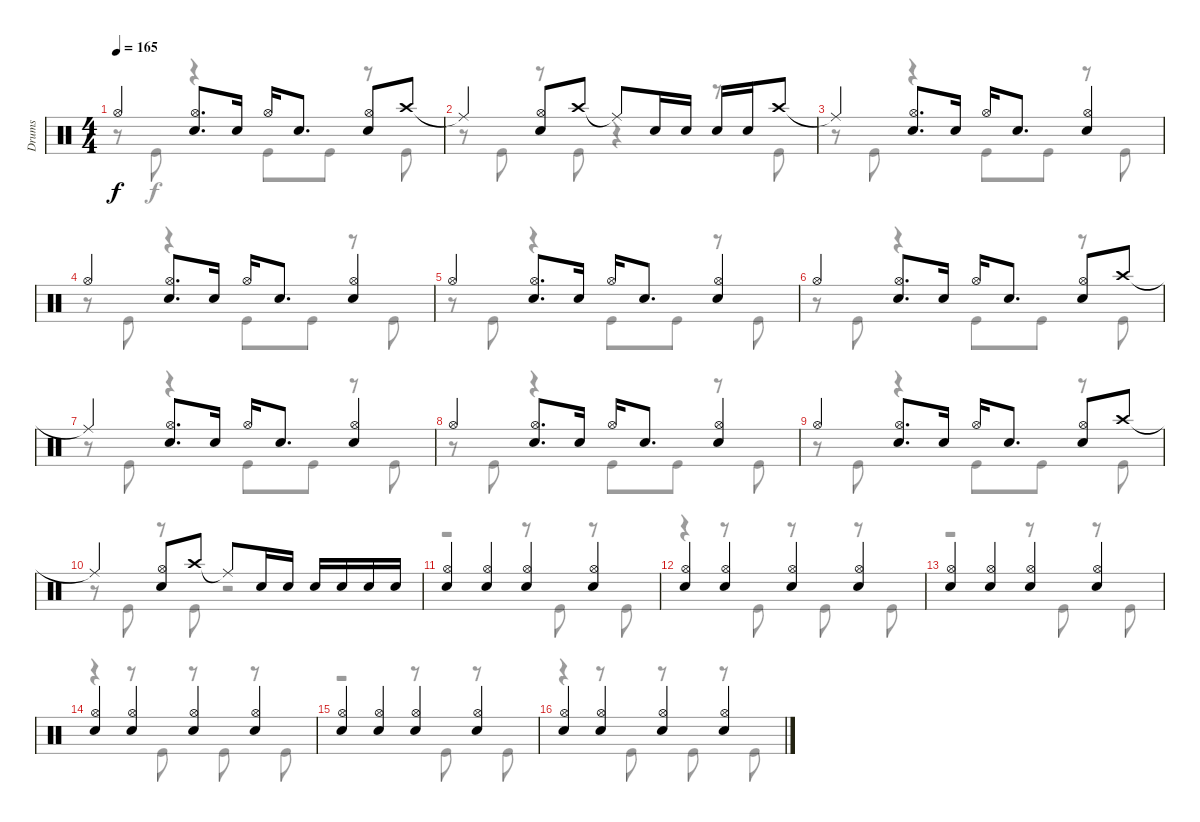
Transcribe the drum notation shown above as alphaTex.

\track ("Drums" "Drums") {instrument percussion}
\staff {score}
\articulation defaults
\voice
\ts (4 4)
\tempo 165
\clef neutral
\ks c "Hi-Hat (open)".4{dy f beam Up}
("Hi-Hat (open)" "Snare (hit) 2").8{d beam Up} "Snare (hit) 2".16{beam Up} "Hi-Hat (open)".16{beam Up} "Snare (hit) 2".8{d beam Up} ("Hi-Hat (open)" "Snare (hit) 2").8{beam Up} "Crash high (hit)".8{beam Up} |
"Ride (middle)"{t}.4{beam Up} ("Hi-Hat (open)" "Snare (hit) 2").8{beam Up} "Crash high (hit)".8{beam Up} "Ride (middle)"{t}.8{beam Up} "Snare (hit) 2".16{beam Up} "Snare (hit) 2".16{beam Up} "Snare (hit) 2".16{beam Up} "Snare (hit) 2".16{beam Up} "Crash high (hit)".8{beam Up} |
"Ride (middle)"{t}.4{beam Up} ("Hi-Hat (open)" "Snare (hit) 2").8{d beam Up} "Snare (hit) 2".16{beam Up} "Hi-Hat (open)".16{beam Up} "Snare (hit) 2".8{d beam Up} ("Hi-Hat (open)" "Snare (hit) 2").4{beam Up} |
"Hi-Hat (open)".4{beam Up} ("Hi-Hat (open)" "Snare (hit) 2").8{d beam Up} "Snare (hit) 2".16{beam Up} "Hi-Hat (open)".16{beam Up} "Snare (hit) 2".8{d beam Up} ("Hi-Hat (open)" "Snare (hit) 2").4{beam Up} |
"Hi-Hat (open)".4{beam Up} ("Hi-Hat (open)" "Snare (hit) 2").8{d beam Up} "Snare (hit) 2".16{beam Up} "Hi-Hat (open)".16{beam Up} "Snare (hit) 2".8{d beam Up} ("Hi-Hat (open)" "Snare (hit) 2").4{beam Up} |
"Hi-Hat (open)".4{beam Up} ("Hi-Hat (open)" "Snare (hit) 2").8{d beam Up} "Snare (hit) 2".16{beam Up} "Hi-Hat (open)".16{beam Up} "Snare (hit) 2".8{d beam Up} ("Hi-Hat (open)" "Snare (hit) 2").8{beam Up} "Crash high (hit)".8{beam Up} |
"Ride (middle)"{t}.4{beam Up} ("Hi-Hat (open)" "Snare (hit) 2").8{d beam Up} "Snare (hit) 2".16{beam Up} "Hi-Hat (open)".16{beam Up} "Snare (hit) 2".8{d beam Up} ("Hi-Hat (open)" "Snare (hit) 2").4{beam Up} |
"Hi-Hat (open)".4{beam Up} ("Hi-Hat (open)" "Snare (hit) 2").8{d beam Up} "Snare (hit) 2".16{beam Up} "Hi-Hat (open)".16{beam Up} "Snare (hit) 2".8{d beam Up} ("Hi-Hat (open)" "Snare (hit) 2").4{beam Up} |
"Hi-Hat (open)".4{beam Up} ("Hi-Hat (open)" "Snare (hit) 2").8{d beam Up} "Snare (hit) 2".16{beam Up} "Hi-Hat (open)".16{beam Up} "Snare (hit) 2".8{d beam Up} ("Hi-Hat (open)" "Snare (hit) 2").8{beam Up} "Crash high (hit)".8{beam Up} |
"Ride (middle)"{t}.4{beam Up} ("Hi-Hat (open)" "Snare (hit) 2").8{beam Up} "Crash high (hit)".8{beam Up} "Ride (middle)"{t}.8{beam Up} "Snare (hit) 2".16{beam Up} "Snare (hit) 2".16{beam Up} "Snare (hit) 2".16{beam Up} "Snare (hit) 2".16{beam Up} "Snare (hit) 2".16{beam Up} "Snare (hit) 2".16{beam Up} |
("Hi-Hat (open)" "Snare (hit) 2").4{beam Up} ("Hi-Hat (open)" "Snare (hit) 2").4{beam Up} ("Hi-Hat (open)" "Snare (hit) 2").4{beam Up} ("Hi-Hat (open)" "Snare (hit) 2").4{beam Up} |
("Hi-Hat (open)" "Snare (hit) 2").4{beam Up} ("Hi-Hat (open)" "Snare (hit) 2").4{beam Up} ("Hi-Hat (open)" "Snare (hit) 2").4{beam Up} ("Hi-Hat (open)" "Snare (hit) 2").4{beam Up} |
("Hi-Hat (open)" "Snare (hit) 2").4{beam Up} ("Hi-Hat (open)" "Snare (hit) 2").4{beam Up} ("Hi-Hat (open)" "Snare (hit) 2").4{beam Up} ("Hi-Hat (open)" "Snare (hit) 2").4{beam Up} |
("Hi-Hat (open)" "Snare (hit) 2").4{beam Up} ("Hi-Hat (open)" "Snare (hit) 2").4{beam Up} ("Hi-Hat (open)" "Snare (hit) 2").4{beam Up} ("Hi-Hat (open)" "Snare (hit) 2").4{beam Up} |
("Hi-Hat (open)" "Snare (hit) 2").4{beam Up} ("Hi-Hat (open)" "Snare (hit) 2").4{beam Up} ("Hi-Hat (open)" "Snare (hit) 2").4{beam Up} ("Hi-Hat (open)" "Snare (hit) 2").4{beam Up} |
("Hi-Hat (open)" "Snare (hit) 2").4{beam Up} ("Hi-Hat (open)" "Snare (hit) 2").4{beam Up} ("Hi-Hat (open)" "Snare (hit) 2").4{beam Up} ("Hi-Hat (open)" "Snare (hit) 2").4{beam Up}
\voice
\clef neutral
\ottava regular
\simile none
\ks c
r.8{dy f} "Kick (hit)".8 r.4 "Kick (hit)".8 "Kick (hit)".8 r.8 "Kick (hit)".8 |
r.8 "Kick (hit)".8 r.8 "Kick (hit)".8 r.4 r.8 "Kick (hit)".8 |
r.8 "Kick (hit)".8 r.4 "Kick (hit)".8 "Kick (hit)".8 r.8 "Kick (hit)".8 |
r.8 "Kick (hit)".8 r.4 "Kick (hit)".8 "Kick (hit)".8 r.8 "Kick (hit)".8 |
r.8 "Kick (hit)".8 r.4 "Kick (hit)".8 "Kick (hit)".8 r.8 "Kick (hit)".8 |
r.8 "Kick (hit)".8 r.4 "Kick (hit)".8 "Kick (hit)".8 r.8 "Kick (hit)".8 |
r.8 "Kick (hit)".8 r.4 "Kick (hit)".8 "Kick (hit)".8 r.8 "Kick (hit)".8 |
r.8 "Kick (hit)".8 r.4 "Kick (hit)".8 "Kick (hit)".8 r.8 "Kick (hit)".8 |
r.8 "Kick (hit)".8 r.4 "Kick (hit)".8 "Kick (hit)".8 r.8 "Kick (hit)".8 |
r.8 "Kick (hit)".8 r.8 "Kick (hit)".8 r.2 |
r.2 r.8 "Kick (hit)".8 r.8 "Kick (hit)".8 |
r.4 r.8 "Kick (hit)".8 r.8 "Kick (hit)".8 r.8 "Kick (hit)".8 |
r.2 r.8 "Kick (hit)".8 r.8 "Kick (hit)".8 |
r.4 r.8 "Kick (hit)".8 r.8 "Kick (hit)".8 r.8 "Kick (hit)".8 |
r.2 r.8 "Kick (hit)".8 r.8 "Kick (hit)".8 |
r.4 r.8 "Kick (hit)".8 r.8 "Kick (hit)".8 r.8 "Kick (hit)".8
